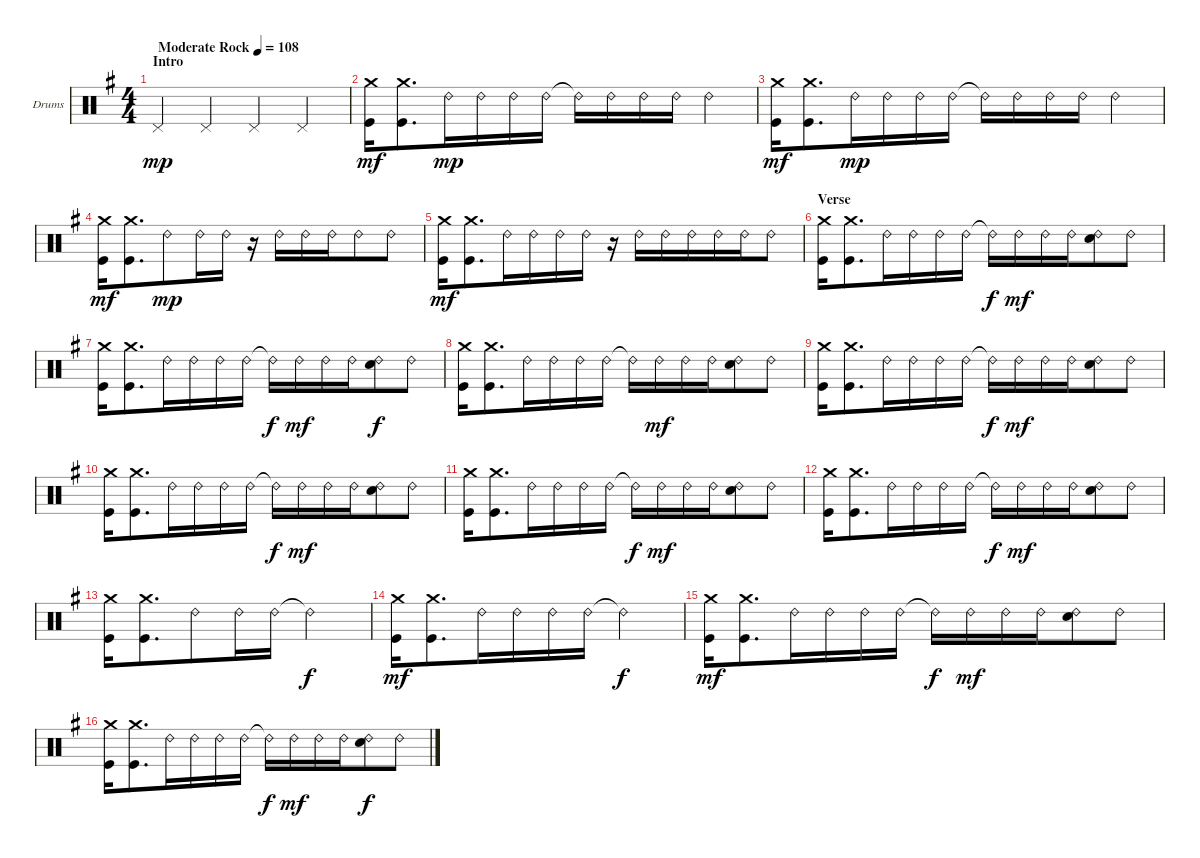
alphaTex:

\defaultSystemsLayout 4
\bracketExtendMode groupsimilarinstruments
\firstSystemTrackNameOrientation horizontal
\otherSystemsTrackNameOrientation horizontal
\track ("Drum" "Drums") {instrument percussion}
\staff {score}
\articulation defaults
\ts (4 4)
\beaming (8 4 4)
\section ("" "Intro")
\tempo (108 "Moderate Rock")
\clef neutral
\scale
1.07314
\ks g "Pedal Hi-Hat (hit)".4{dy mp} "Pedal Hi-Hat (hit)".4 "Pedal Hi-Hat (hit)".4 "Pedal Hi-Hat (hit)".4
|
\scale
0.92686 ("Crash medium (hit)" "Kick (hit)").16{dy mf} ("Crash medium (hit)" "Kick (hit)").8{d} "Ride (bell) 2".16{dy mp} "Ride (bell) 2".16 "Ride (bell) 2".16 "Ride (bell) 2".16 "Ride (bell) 2"{t}.16 "Ride (bell) 2".16 "Ride (bell) 2".16 "Ride (bell) 2".16 "Ride (bell) 2".4 |
\scale
1.04288 ("Crash medium (hit)" "Kick (hit)").16{dy mf} ("Crash medium (hit)" "Kick (hit)").8{d} "Ride (bell) 2".16{dy mp} "Ride (bell) 2".16 "Ride (bell) 2".16 "Ride (bell) 2".16 "Ride (bell) 2"{t}.16 "Ride (bell) 2".16 "Ride (bell) 2".16 "Ride (bell) 2".16 "Ride (bell) 2".4 |
\scale
0.957125 ("Crash medium (hit)" "Kick (hit)").16{dy mf} ("Crash medium (hit)" "Kick (hit)").8{d} "Ride (bell) 2".8{dy mp} "Ride (bell) 2".16 "Ride (bell) 2".16 r.16 "Ride (bell) 2".16 "Ride (bell) 2".16 "Ride (bell) 2".16 "Ride (bell) 2".8 "Ride (bell) 2".8 |
\scale
1.04288 ("Crash medium (hit)" "Kick (hit)").16{dy mf} ("Crash medium (hit)" "Kick (hit)").8{d} "Ride (bell) 2".16 "Ride (bell) 2".16 "Ride (bell) 2".16 "Ride (bell) 2".16 r.16 "Ride (bell) 2".16 "Ride (bell) 2".16 "Ride (bell) 2".16 "Ride (bell) 2".16 "Ride (bell) 2".16 "Ride (bell) 2".8 |
\section ("" "Verse")
\scale
0.957125 ("Crash medium (hit)" "Kick (hit)").16 ("Crash medium (hit)" "Kick (hit)").8{d} "Ride (bell) 2".16 "Ride (bell) 2".16 "Ride (bell) 2".16 "Ride (bell) 2".16 "Ride (bell) 2"{t}.16{dy f} "Ride (bell) 2".16{dy mf} "Ride (bell) 2".16 "Ride (bell) 2".16 ("Ride (bell) 2" "Snare (hit) 2").8 "Ride (bell) 2".8 |
\scale
1.04288 ("Crash medium (hit)" "Kick (hit)").16 ("Crash medium (hit)" "Kick (hit)").8{d} "Ride (bell) 2".16 "Ride (bell) 2".16 "Ride (bell) 2".16 "Ride (bell) 2".16 "Ride (bell) 2"{t}.16{dy f} "Ride (bell) 2".16{dy mf} "Ride (bell) 2".16 "Ride (bell) 2".16 ("Ride (bell) 2" "Snare (hit) 2").8{dy f} "Ride (bell) 2".8 |
\scale
0.957125 ("Crash medium (hit)" "Kick (hit)").16 ("Crash medium (hit)" "Kick (hit)").8{d} "Ride (bell) 2".16 "Ride (bell) 2".16 "Ride (bell) 2".16 "Ride (bell) 2".16 "Ride (bell) 2"{t}.16 "Ride (bell) 2".16{dy mf} "Ride (bell) 2".16 "Ride (bell) 2".16 ("Ride (bell) 2" "Snare (hit) 2").8 "Ride (bell) 2".8 |
\scale
1.04288 ("Crash medium (hit)" "Kick (hit)").16 ("Crash medium (hit)" "Kick (hit)").8{d} "Ride (bell) 2".16 "Ride (bell) 2".16 "Ride (bell) 2".16 "Ride (bell) 2".16 "Ride (bell) 2"{t}.16{dy f} "Ride (bell) 2".16{dy mf} "Ride (bell) 2".16 "Ride (bell) 2".16 ("Ride (bell) 2" "Snare (hit) 2").8 "Ride (bell) 2".8 |
\scale
0.957125 ("Crash medium (hit)" "Kick (hit)").16 ("Crash medium (hit)" "Kick (hit)").8{d} "Ride (bell) 2".16 "Ride (bell) 2".16 "Ride (bell) 2".16 "Ride (bell) 2".16 "Ride (bell) 2"{t}.16{dy f} "Ride (bell) 2".16{dy mf} "Ride (bell) 2".16 "Ride (bell) 2".16 ("Ride (bell) 2" "Snare (hit) 2").8 "Ride (bell) 2".8 |
\scale
1.04288 ("Crash medium (hit)" "Kick (hit)").16 ("Crash medium (hit)" "Kick (hit)").8{d} "Ride (bell) 2".16 "Ride (bell) 2".16 "Ride (bell) 2".16 "Ride (bell) 2".16 "Ride (bell) 2"{t}.16{dy f} "Ride (bell) 2".16{dy mf} "Ride (bell) 2".16 "Ride (bell) 2".16 ("Ride (bell) 2" "Snare (hit) 2").8 "Ride (bell) 2".8 |
\scale
0.957125 ("Crash medium (hit)" "Kick (hit)").16 ("Crash medium (hit)" "Kick (hit)").8{d} "Ride (bell) 2".16 "Ride (bell) 2".16 "Ride (bell) 2".16 "Ride (bell) 2".16 "Ride (bell) 2"{t}.16{dy f} "Ride (bell) 2".16{dy mf} "Ride (bell) 2".16 "Ride (bell) 2".16 ("Ride (bell) 2" "Snare (hit) 2").8 "Ride (bell) 2".8 |
\scale
1.04288 ("Crash medium (hit)" "Kick (hit)").16 ("Crash medium (hit)" "Kick (hit)").8{d} "Ride (bell) 2".8 "Ride (bell) 2".16 "Ride (bell) 2".16 "Ride (bell) 2"{t}.2{dy f} |
\scale
0.957125 ("Crash medium (hit)" "Kick (hit)").16{dy mf} ("Crash medium (hit)" "Kick (hit)").8{d} "Ride (bell) 2".16 "Ride (bell) 2".16 "Ride (bell) 2".16 "Ride (bell) 2".16 "Ride (bell) 2"{t}.2{dy f} |
\scale
1.04288 ("Crash medium (hit)" "Kick (hit)").16{dy mf} ("Crash medium (hit)" "Kick (hit)").8{d} "Ride (bell) 2".16 "Ride (bell) 2".16 "Ride (bell) 2".16 "Ride (bell) 2".16 "Ride (bell) 2"{t}.16{dy f} "Ride (bell) 2".16{dy mf} "Ride (bell) 2".16 "Ride (bell) 2".16 ("Ride (bell) 2" "Snare (hit) 2").8 "Ride (bell) 2".8 |
\scale
0.957125 ("Crash medium (hit)" "Kick (hit)").16 ("Crash medium (hit)" "Kick (hit)").8{d} "Ride (bell) 2".16 "Ride (bell) 2".16 "Ride (bell) 2".16 "Ride (bell) 2".16 "Ride (bell) 2"{t}.16{dy f} "Ride (bell) 2".16{dy mf} "Ride (bell) 2".16 "Ride (bell) 2".16 ("Ride (bell) 2" "Snare (hit) 2").8{dy f} "Ride (bell) 2".8
